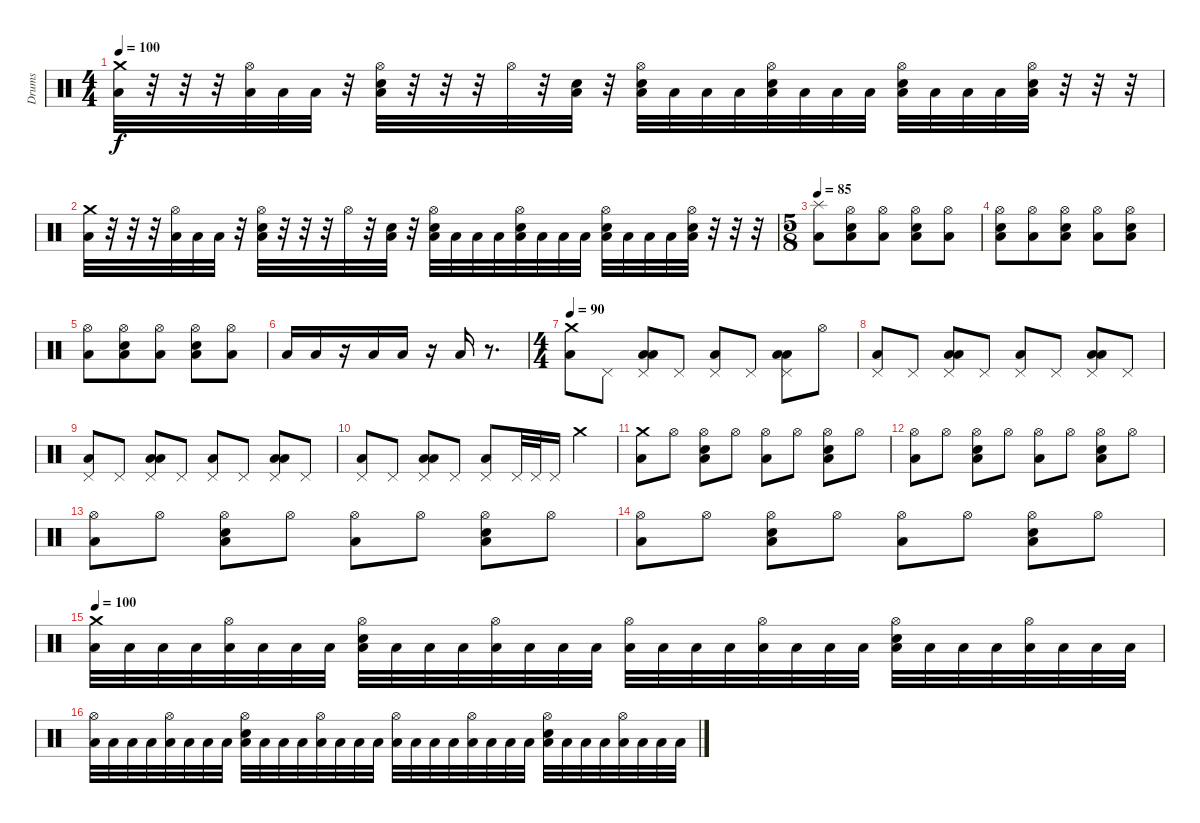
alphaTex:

\track ("Drums" "Drums") {instrument percussion}
\staff {score}
\articulation defaults
\ts (4 4)
\tempo 100
\clef neutral
\ks c
("Crash medium (hit)" "Low Floor Tom (hit)").32{dy f} r.32 r.32 r.32 ("Hi-Hat (open)" "Low Floor Tom (hit)").32 "Low Floor Tom (hit)".32 "Low Floor Tom (hit)".32 r.32 ("Hi-Hat (open)" "Electric Snare (hit)" "Low Floor Tom (hit)").32 r.32 r.32 r.32 "Hi-Hat (open)".32 r.32 ("Electric Snare (hit)" "Low Floor Tom (hit)").32 r.32 ("Hi-Hat (open)" "Electric Snare (hit)" "Low Floor Tom (hit)").32 "Low Floor Tom (hit)".32 "Low Floor Tom (hit)".32 "Low Floor Tom (hit)".32 ("Hi-Hat (open)" "Electric Snare (hit)" "Low Floor Tom (hit)").32 "Low Floor Tom (hit)".32 "Low Floor Tom (hit)".32 "Low Floor Tom (hit)".32 ("Hi-Hat (open)" "Electric Snare (hit)" "Low Floor Tom (hit)").32 "Low Floor Tom (hit)".32 "Low Floor Tom (hit)".32 "Low Floor Tom (hit)".32 ("Hi-Hat (open)" "Electric Snare (hit)" "Low Floor Tom (hit)").32 r.32 r.32 r.32 |
("Crash medium (hit)" "Low Floor Tom (hit)").32 r.32 r.32 r.32 ("Hi-Hat (open)" "Low Floor Tom (hit)").32 "Low Floor Tom (hit)".32 "Low Floor Tom (hit)".32 r.32 ("Hi-Hat (open)" "Electric Snare (hit)" "Low Floor Tom (hit)").32 r.32 r.32 r.32 "Hi-Hat (open)".32 r.32 ("Electric Snare (hit)" "Low Floor Tom (hit)").32 r.32 ("Hi-Hat (open)" "Electric Snare (hit)" "Low Floor Tom (hit)").32 "Low Floor Tom (hit)".32 "Low Floor Tom (hit)".32 "Low Floor Tom (hit)".32 ("Hi-Hat (open)" "Electric Snare (hit)" "Low Floor Tom (hit)").32 "Low Floor Tom (hit)".32 "Low Floor Tom (hit)".32 "Low Floor Tom (hit)".32 ("Hi-Hat (open)" "Electric Snare (hit)" "Low Floor Tom (hit)").32 "Low Floor Tom (hit)".32 "Low Floor Tom (hit)".32 "Low Floor Tom (hit)".32 ("Hi-Hat (open)" "Electric Snare (hit)" "Low Floor Tom (hit)").32 r.32 r.32 r.32 |
\ts (5 8)
\tempo 85
("Splash (hit)" "Low Floor Tom (hit)").8 ("Hi-Hat (open)" "Electric Snare (hit)" "Low Floor Tom (hit)").8 ("Hi-Hat (open)" "Low Floor Tom (hit)").8 ("Hi-Hat (open)" "Electric Snare (hit)" "Low Floor Tom (hit)").8 ("Hi-Hat (open)" "Low Floor Tom (hit)").8 |
("Hi-Hat (open)" "Electric Snare (hit)" "Low Floor Tom (hit)").8 ("Hi-Hat (open)" "Low Floor Tom (hit)").8 ("Hi-Hat (open)" "Electric Snare (hit)" "Low Floor Tom (hit)").8 ("Hi-Hat (open)" "Low Floor Tom (hit)").8 ("Hi-Hat (open)" "Electric Snare (hit)" "Low Floor Tom (hit)").8 |
("Hi-Hat (open)" "Low Floor Tom (hit)").8 ("Hi-Hat (open)" "Electric Snare (hit)" "Low Floor Tom (hit)").8 ("Hi-Hat (open)" "Low Floor Tom (hit)").8 ("Hi-Hat (open)" "Electric Snare (hit)" "Low Floor Tom (hit)").8 ("Hi-Hat (open)" "Low Floor Tom (hit)").8 |
"Low Floor Tom (hit)".16 "Low Floor Tom (hit)".16 r.16 "Low Floor Tom (hit)".16 "Low Floor Tom (hit)".16 r.16 "Low Floor Tom (hit)".16 r.8{d} |
\ts (4 4)
\tempo 90
("Crash medium (hit)" "Low Floor Tom (hit)").8 "Pedal Hi-Hat (hit)".8 ("Pedal Hi-Hat (hit)" "Low Tom (hit)" "Low Floor Tom (hit)").8 "Pedal Hi-Hat (hit)".8 ("Pedal Hi-Hat (hit)" "Low Floor Tom (hit)").8 "Pedal Hi-Hat (hit)".8 ("Pedal Hi-Hat (hit)" "Low Tom (hit)" "Low Floor Tom (hit)").8 "Hi-Hat (open)".8 |
("Pedal Hi-Hat (hit)" "Low Floor Tom (hit)").8 "Pedal Hi-Hat (hit)".8 ("Pedal Hi-Hat (hit)" "Low Tom (hit)" "Low Floor Tom (hit)").8 "Pedal Hi-Hat (hit)".8 ("Pedal Hi-Hat (hit)" "Low Floor Tom (hit)").8 "Pedal Hi-Hat (hit)".8 ("Pedal Hi-Hat (hit)" "Low Tom (hit)" "Low Floor Tom (hit)").8 "Pedal Hi-Hat (hit)".8 |
("Pedal Hi-Hat (hit)" "Low Floor Tom (hit)").8 "Pedal Hi-Hat (hit)".8 ("Pedal Hi-Hat (hit)" "Low Tom (hit)" "Low Floor Tom (hit)").8 "Pedal Hi-Hat (hit)".8 ("Pedal Hi-Hat (hit)" "Low Floor Tom (hit)").8 "Pedal Hi-Hat (hit)".8 ("Pedal Hi-Hat (hit)" "Low Tom (hit)" "Low Floor Tom (hit)").8 "Pedal Hi-Hat (hit)".8 |
("Pedal Hi-Hat (hit)" "Low Floor Tom (hit)").8 "Pedal Hi-Hat (hit)".8 ("Pedal Hi-Hat (hit)" "Low Tom (hit)" "Low Floor Tom (hit)").8 "Pedal Hi-Hat (hit)".8 ("Pedal Hi-Hat (hit)" "Low Floor Tom (hit)").8 "Pedal Hi-Hat (hit)".32 "Pedal Hi-Hat (hit)".32 "Pedal Hi-Hat (hit)".16 "Crash medium (hit)".4 |
("Crash medium (hit)" "Low Floor Tom (hit)").8 "Hi-Hat (open)".8 ("Hi-Hat (open)" "Electric Snare (hit)" "Low Floor Tom (hit)").8 "Hi-Hat (open)".8 ("Hi-Hat (open)" "Low Floor Tom (hit)").8 "Hi-Hat (open)".8 ("Hi-Hat (open)" "Electric Snare (hit)" "Low Floor Tom (hit)").8 "Hi-Hat (open)".8 |
("Hi-Hat (open)" "Low Floor Tom (hit)").8 "Hi-Hat (open)".8 ("Hi-Hat (open)" "Electric Snare (hit)" "Low Floor Tom (hit)").8 "Hi-Hat (open)".8 ("Hi-Hat (open)" "Low Floor Tom (hit)").8 "Hi-Hat (open)".8 ("Hi-Hat (open)" "Electric Snare (hit)" "Low Floor Tom (hit)").8 "Hi-Hat (open)".8 |
("Hi-Hat (open)" "Low Floor Tom (hit)").8 "Hi-Hat (open)".8 ("Hi-Hat (open)" "Electric Snare (hit)" "Low Floor Tom (hit)").8 "Hi-Hat (open)".8 ("Hi-Hat (open)" "Low Floor Tom (hit)").8 "Hi-Hat (open)".8 ("Hi-Hat (open)" "Electric Snare (hit)" "Low Floor Tom (hit)").8 "Hi-Hat (open)".8 |
("Hi-Hat (open)" "Low Floor Tom (hit)").8 "Hi-Hat (open)".8 ("Hi-Hat (open)" "Electric Snare (hit)" "Low Floor Tom (hit)").8 "Hi-Hat (open)".8 ("Hi-Hat (open)" "Low Floor Tom (hit)").8 "Hi-Hat (open)".8 ("Hi-Hat (open)" "Electric Snare (hit)" "Low Floor Tom (hit)").8 "Hi-Hat (open)".8 |
\tempo 100
("Crash medium (hit)" "Low Floor Tom (hit)").32 "Low Floor Tom (hit)".32 "Low Floor Tom (hit)".32 "Low Floor Tom (hit)".32 ("Hi-Hat (open)" "Low Floor Tom (hit)").32 "Low Floor Tom (hit)".32 "Low Floor Tom (hit)".32 "Low Floor Tom (hit)".32 ("Hi-Hat (open)" "Electric Snare (hit)" "Low Floor Tom (hit)").32 "Low Floor Tom (hit)".32 "Low Floor Tom (hit)".32 "Low Floor Tom (hit)".32 ("Hi-Hat (open)" "Low Floor Tom (hit)").32 "Low Floor Tom (hit)".32 "Low Floor Tom (hit)".32 "Low Floor Tom (hit)".32 ("Hi-Hat (open)" "Low Floor Tom (hit)").32 "Low Floor Tom (hit)".32 "Low Floor Tom (hit)".32 "Low Floor Tom (hit)".32 ("Hi-Hat (open)" "Low Floor Tom (hit)").32 "Low Floor Tom (hit)".32 "Low Floor Tom (hit)".32 "Low Floor Tom (hit)".32 ("Hi-Hat (open)" "Electric Snare (hit)" "Low Floor Tom (hit)").32 "Low Floor Tom (hit)".32 "Low Floor Tom (hit)".32 "Low Floor Tom (hit)".32 ("Hi-Hat (open)" "Low Floor Tom (hit)").32 "Low Floor Tom (hit)".32 "Low Floor Tom (hit)".32 "Low Floor Tom (hit)".32 |
("Hi-Hat (open)" "Low Floor Tom (hit)").32 "Low Floor Tom (hit)".32 "Low Floor Tom (hit)".32 "Low Floor Tom (hit)".32 ("Hi-Hat (open)" "Low Floor Tom (hit)").32 "Low Floor Tom (hit)".32 "Low Floor Tom (hit)".32 "Low Floor Tom (hit)".32 ("Hi-Hat (open)" "Electric Snare (hit)" "Low Floor Tom (hit)").32 "Low Floor Tom (hit)".32 "Low Floor Tom (hit)".32 "Low Floor Tom (hit)".32 ("Hi-Hat (open)" "Low Floor Tom (hit)").32 "Low Floor Tom (hit)".32 "Low Floor Tom (hit)".32 "Low Floor Tom (hit)".32 ("Hi-Hat (open)" "Low Floor Tom (hit)").32 "Low Floor Tom (hit)".32 "Low Floor Tom (hit)".32 "Low Floor Tom (hit)".32 ("Hi-Hat (open)" "Low Floor Tom (hit)").32 "Low Floor Tom (hit)".32 "Low Floor Tom (hit)".32 "Low Floor Tom (hit)".32 ("Hi-Hat (open)" "Electric Snare (hit)" "Low Floor Tom (hit)").32 "Low Floor Tom (hit)".32 "Low Floor Tom (hit)".32 "Low Floor Tom (hit)".32 ("Hi-Hat (open)" "Low Floor Tom (hit)").32 "Low Floor Tom (hit)".32 "Low Floor Tom (hit)".32 "Low Floor Tom (hit)".32
